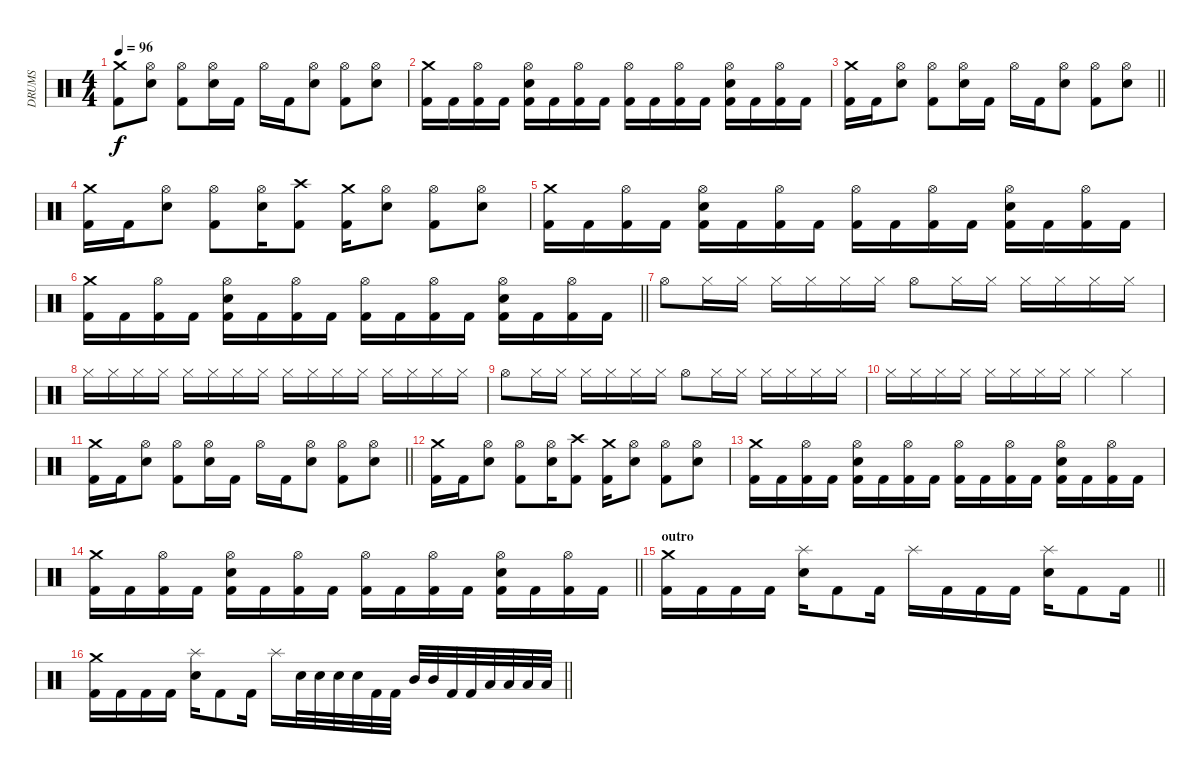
\track ("DRUMS" "DRUMS") {instrument percussion}
\staff {score}
\articulation defaults
\ts (4 4)
\tempo 96
\clef neutral
\ks c
("Kick (hit) 2" "Crash medium (hit)").8{dy f} ("Electric Snare (hit)" "Hi-Hat (open)").8 ("Kick (hit) 2" "Hi-Hat (open)").8 ("Electric Snare (hit)" "Hi-Hat (open)").16 "Kick (hit) 2".16 "Hi-Hat (open)".16 "Kick (hit) 2".16 ("Electric Snare (hit)" "Hi-Hat (open)").8 ("Kick (hit) 2" "Hi-Hat (open)").8 ("Electric Snare (hit)" "Hi-Hat (open)").8 |
("Kick (hit) 2" "Crash medium (hit)").16 "Kick (hit) 2".16 ("Kick (hit) 2" "Hi-Hat (open)").16 "Kick (hit) 2".16 ("Kick (hit) 2" "Electric Snare (hit)" "Hi-Hat (open)").16 "Kick (hit) 2".16 ("Kick (hit) 2" "Hi-Hat (open)").16 "Kick (hit) 2".16 ("Kick (hit) 2" "Hi-Hat (open)").16 "Kick (hit) 2".16 ("Kick (hit) 2" "Hi-Hat (open)").16 "Kick (hit) 2".16 ("Kick (hit) 2" "Electric Snare (hit)" "Hi-Hat (open)").16 "Kick (hit) 2".16 ("Kick (hit) 2" "Hi-Hat (open)").16 "Kick (hit) 2".16 |
\barLineRight lightlight
("Kick (hit) 2" "Crash medium (hit)").16 "Kick (hit) 2".16 ("Electric Snare (hit)" "Hi-Hat (open)").8 ("Kick (hit) 2" "Hi-Hat (open)").8 ("Electric Snare (hit)" "Hi-Hat (open)").16 "Kick (hit) 2".16 "Hi-Hat (open)".16 "Kick (hit) 2".16 ("Electric Snare (hit)" "Hi-Hat (open)").8 ("Kick (hit) 2" "Hi-Hat (open)").8 ("Electric Snare (hit)" "Hi-Hat (open)").8 |
("Kick (hit) 2" "Crash medium (hit)").16 "Kick (hit) 2".16 ("Electric Snare (hit)" "Hi-Hat (open)").8 ("Kick (hit) 2" "Hi-Hat (open)").8 ("Electric Snare (hit)" "Hi-Hat (open)").16 ("Kick (hit) 2" "Crash high (hit)").8 ("Kick (hit) 2" "Crash medium (hit)").16 ("Electric Snare (hit)" "Hi-Hat (open)").8 ("Kick (hit) 2" "Hi-Hat (open)").8 ("Electric Snare (hit)" "Hi-Hat (open)").8 |
("Kick (hit) 2" "Crash medium (hit)").16 "Kick (hit) 2".16 ("Kick (hit) 2" "Hi-Hat (open)").16 "Kick (hit) 2".16 ("Kick (hit) 2" "Electric Snare (hit)" "Hi-Hat (open)").16 "Kick (hit) 2".16 ("Kick (hit) 2" "Hi-Hat (open)").16 "Kick (hit) 2".16 ("Kick (hit) 2" "Hi-Hat (open)").16 "Kick (hit) 2".16 ("Kick (hit) 2" "Hi-Hat (open)").16 "Kick (hit) 2".16 ("Kick (hit) 2" "Electric Snare (hit)" "Hi-Hat (open)").16 "Kick (hit) 2".16 ("Kick (hit) 2" "Hi-Hat (open)").16 "Kick (hit) 2".16 |
\barLineRight lightlight
("Kick (hit) 2" "Crash medium (hit)").16 "Kick (hit) 2".16 ("Kick (hit) 2" "Hi-Hat (open)").16 "Kick (hit) 2".16 ("Kick (hit) 2" "Electric Snare (hit)" "Hi-Hat (open)").16 "Kick (hit) 2".16 ("Kick (hit) 2" "Hi-Hat (open)").16 "Kick (hit) 2".16 ("Kick (hit) 2" "Hi-Hat (open)").16 "Kick (hit) 2".16 ("Kick (hit) 2" "Hi-Hat (open)").16 "Kick (hit) 2".16 ("Kick (hit) 2" "Electric Snare (hit)" "Hi-Hat (open)").16 "Kick (hit) 2".16 ("Kick (hit) 2" "Hi-Hat (open)").16 "Kick (hit) 2".16 |
"Hi-Hat (open)".8 "Hi-Hat (closed)".16 "Hi-Hat (closed)".16 "Hi-Hat (closed)".16 "Hi-Hat (closed)".16 "Hi-Hat (closed)".16 "Hi-Hat (closed)".16 "Hi-Hat (open)".8 "Hi-Hat (closed)".16 "Hi-Hat (closed)".16 "Hi-Hat (closed)".16 "Hi-Hat (closed)".16 "Hi-Hat (closed)".16 "Hi-Hat (closed)".16 |
"Hi-Hat (closed)".16 "Hi-Hat (closed)".16 "Hi-Hat (closed)".16 "Hi-Hat (closed)".16 "Hi-Hat (closed)".16 "Hi-Hat (closed)".16 "Hi-Hat (closed)".16 "Hi-Hat (closed)".16 "Hi-Hat (closed)".16 "Hi-Hat (closed)".16 "Hi-Hat (closed)".16 "Hi-Hat (closed)".16 "Hi-Hat (closed)".16 "Hi-Hat (closed)".16 "Hi-Hat (closed)".16 "Hi-Hat (closed)".16 |
"Hi-Hat (open)".8 "Hi-Hat (closed)".16 "Hi-Hat (closed)".16 "Hi-Hat (closed)".16 "Hi-Hat (closed)".16 "Hi-Hat (closed)".16 "Hi-Hat (closed)".16 "Hi-Hat (open)".8 "Hi-Hat (closed)".16 "Hi-Hat (closed)".16 "Hi-Hat (closed)".16 "Hi-Hat (closed)".16 "Hi-Hat (closed)".16 "Hi-Hat (closed)".16 |
"Hi-Hat (closed)".16 "Hi-Hat (closed)".16 "Hi-Hat (closed)".16 "Hi-Hat (closed)".16 "Hi-Hat (closed)".16 "Hi-Hat (closed)".16 "Hi-Hat (closed)".16 "Hi-Hat (closed)".16 "Hi-Hat (closed)".4 "Hi-Hat (closed)".4 |
\barLineRight lightlight
("Kick (hit) 2" "Crash medium (hit)").16 "Kick (hit) 2".16 ("Electric Snare (hit)" "Hi-Hat (open)").8 ("Kick (hit) 2" "Hi-Hat (open)").8 ("Electric Snare (hit)" "Hi-Hat (open)").16 "Kick (hit) 2".16 "Hi-Hat (open)".16 "Kick (hit) 2".16 ("Electric Snare (hit)" "Hi-Hat (open)").8 ("Kick (hit) 2" "Hi-Hat (open)").8 ("Electric Snare (hit)" "Hi-Hat (open)").8 |
("Kick (hit) 2" "Crash medium (hit)").16 "Kick (hit) 2".16 ("Electric Snare (hit)" "Hi-Hat (open)").8 ("Kick (hit) 2" "Hi-Hat (open)").8 ("Electric Snare (hit)" "Hi-Hat (open)").16 ("Kick (hit) 2" "Crash high (hit)").8 ("Kick (hit) 2" "Crash medium (hit)").16 ("Electric Snare (hit)" "Hi-Hat (open)").8 ("Kick (hit) 2" "Hi-Hat (open)").8 ("Electric Snare (hit)" "Hi-Hat (open)").8 |
("Kick (hit) 2" "Crash medium (hit)").16 "Kick (hit) 2".16 ("Kick (hit) 2" "Hi-Hat (open)").16 "Kick (hit) 2".16 ("Kick (hit) 2" "Electric Snare (hit)" "Hi-Hat (open)").16 "Kick (hit) 2".16 ("Kick (hit) 2" "Hi-Hat (open)").16 "Kick (hit) 2".16 ("Kick (hit) 2" "Hi-Hat (open)").16 "Kick (hit) 2".16 ("Kick (hit) 2" "Hi-Hat (open)").16 "Kick (hit) 2".16 ("Kick (hit) 2" "Electric Snare (hit)" "Hi-Hat (open)").16 "Kick (hit) 2".16 ("Kick (hit) 2" "Hi-Hat (open)").16 "Kick (hit) 2".16 |
\barLineRight lightlight
("Kick (hit) 2" "Crash medium (hit)").16 "Kick (hit) 2".16 ("Kick (hit) 2" "Hi-Hat (open)").16 "Kick (hit) 2".16 ("Kick (hit) 2" "Electric Snare (hit)" "Hi-Hat (open)").16 "Kick (hit) 2".16 ("Kick (hit) 2" "Hi-Hat (open)").16 "Kick (hit) 2".16 ("Kick (hit) 2" "Hi-Hat (open)").16 "Kick (hit) 2".16 ("Kick (hit) 2" "Hi-Hat (open)").16 "Kick (hit) 2".16 ("Kick (hit) 2" "Electric Snare (hit)" "Hi-Hat (open)").16 "Kick (hit) 2".16 ("Kick (hit) 2" "Hi-Hat (open)").16 "Kick (hit) 2".16 |
\section ("" "outro")
\barLineRight lightlight
("Kick (hit) 2" "Crash medium (hit)").16 "Kick (hit) 2".16 "Kick (hit) 2".16 "Kick (hit) 2".16 ("Electric Snare (hit)" "Splash (hit)").16 "Kick (hit) 2".8 "Kick (hit) 2".16 "Splash (hit)".16 "Kick (hit) 2".16 "Kick (hit) 2".16 "Kick (hit) 2".16 ("Electric Snare (hit)" "Splash (hit)").16 "Kick (hit) 2".8 "Kick (hit) 2".16 |
\barLineRight lightlight
("Kick (hit) 2" "Crash medium (hit)").16 "Kick (hit) 2".16 "Kick (hit) 2".16 "Kick (hit) 2".16 ("Electric Snare (hit)" "Splash (hit)").16 "Kick (hit) 2".8 "Kick (hit) 2".16 "Splash (hit)".16 "Electric Snare (hit)".32 "Electric Snare (hit)".32 "Electric Snare (hit)".32 "Electric Snare (hit)".32 "Kick (hit) 2".32 "Kick (hit) 2".32 "Mid Tom (hit)".32 "Mid Tom (hit)".32 "Kick (hit) 2".32 "Kick (hit) 2".32 "Low Tom (hit)".32 "Low Tom (hit)".32 "Low Tom (hit)".32 "Low Tom (hit)".32
